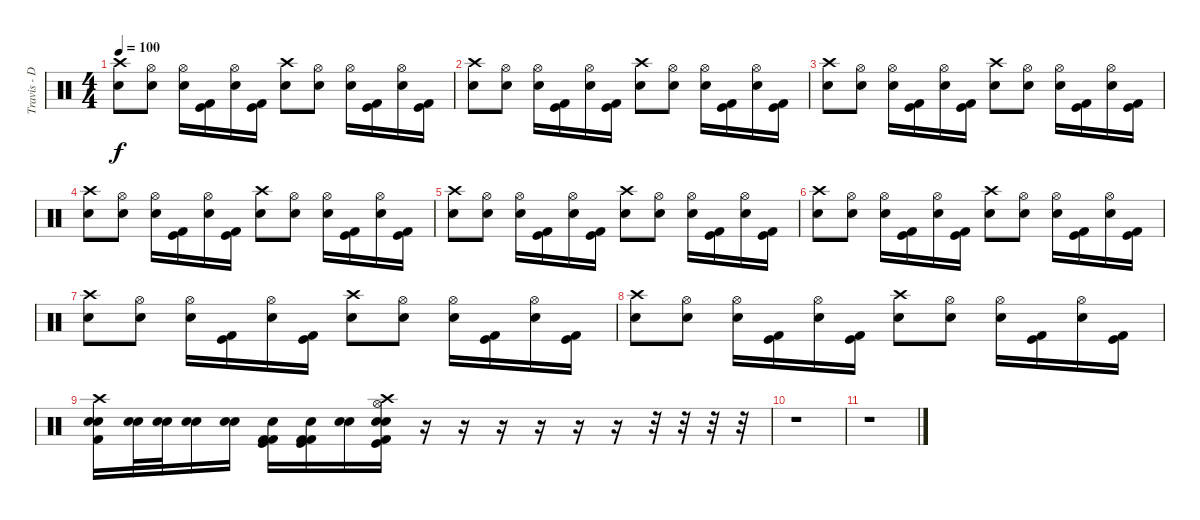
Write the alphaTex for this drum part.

\track ("Travis - Drums {Tabbed by Peter B.}" "Travis - D") {instrument percussion}
\staff {score}
\articulation defaults
\ts (4 4)
\tempo 100
\clef neutral
\ks c
("Crash high (hit)" "Electric Snare (hit)").8{dy f} ("Hi-Hat (open)" "Electric Snare (hit)").8 ("Hi-Hat (open)" "Electric Snare (hit)").16 ("Kick (hit)" "Kick (hit) 2").16 ("Hi-Hat (open)" "Electric Snare (hit)").16 ("Kick (hit)" "Kick (hit) 2").16 ("Crash high (hit)" "Electric Snare (hit)").8 ("Hi-Hat (open)" "Electric Snare (hit)").8 ("Hi-Hat (open)" "Electric Snare (hit)").16 ("Kick (hit)" "Kick (hit) 2").16 ("Hi-Hat (open)" "Electric Snare (hit)").16 ("Kick (hit)" "Kick (hit) 2").16 |
("Crash high (hit)" "Electric Snare (hit)").8 ("Hi-Hat (open)" "Electric Snare (hit)").8 ("Hi-Hat (open)" "Electric Snare (hit)").16 ("Kick (hit)" "Kick (hit) 2").16 ("Hi-Hat (open)" "Electric Snare (hit)").16 ("Kick (hit)" "Kick (hit) 2").16 ("Crash high (hit)" "Electric Snare (hit)").8 ("Hi-Hat (open)" "Electric Snare (hit)").8 ("Hi-Hat (open)" "Electric Snare (hit)").16 ("Kick (hit)" "Kick (hit) 2").16 ("Hi-Hat (open)" "Electric Snare (hit)").16 ("Kick (hit)" "Kick (hit) 2").16 |
("Crash high (hit)" "Electric Snare (hit)").8 ("Hi-Hat (open)" "Electric Snare (hit)").8 ("Hi-Hat (open)" "Electric Snare (hit)").16 ("Kick (hit)" "Kick (hit) 2").16 ("Hi-Hat (open)" "Electric Snare (hit)").16 ("Kick (hit)" "Kick (hit) 2").16 ("Crash high (hit)" "Electric Snare (hit)").8 ("Hi-Hat (open)" "Electric Snare (hit)").8 ("Hi-Hat (open)" "Electric Snare (hit)").16 ("Kick (hit)" "Kick (hit) 2").16 ("Hi-Hat (open)" "Electric Snare (hit)").16 ("Kick (hit)" "Kick (hit) 2").16 |
("Crash high (hit)" "Electric Snare (hit)").8 ("Hi-Hat (open)" "Electric Snare (hit)").8 ("Hi-Hat (open)" "Electric Snare (hit)").16 ("Kick (hit)" "Kick (hit) 2").16 ("Hi-Hat (open)" "Electric Snare (hit)").16 ("Kick (hit)" "Kick (hit) 2").16 ("Crash high (hit)" "Electric Snare (hit)").8 ("Hi-Hat (open)" "Electric Snare (hit)").8 ("Hi-Hat (open)" "Electric Snare (hit)").16 ("Kick (hit)" "Kick (hit) 2").16 ("Hi-Hat (open)" "Electric Snare (hit)").16 ("Kick (hit)" "Kick (hit) 2").16 |
("Crash high (hit)" "Electric Snare (hit)").8 ("Hi-Hat (open)" "Electric Snare (hit)").8 ("Hi-Hat (open)" "Electric Snare (hit)").16 ("Kick (hit)" "Kick (hit) 2").16 ("Hi-Hat (open)" "Electric Snare (hit)").16 ("Kick (hit)" "Kick (hit) 2").16 ("Crash high (hit)" "Electric Snare (hit)").8 ("Hi-Hat (open)" "Electric Snare (hit)").8 ("Hi-Hat (open)" "Electric Snare (hit)").16 ("Kick (hit)" "Kick (hit) 2").16 ("Hi-Hat (open)" "Electric Snare (hit)").16 ("Kick (hit)" "Kick (hit) 2").16 |
("Crash high (hit)" "Electric Snare (hit)").8 ("Hi-Hat (open)" "Electric Snare (hit)").8 ("Hi-Hat (open)" "Electric Snare (hit)").16 ("Kick (hit)" "Kick (hit) 2").16 ("Hi-Hat (open)" "Electric Snare (hit)").16 ("Kick (hit)" "Kick (hit) 2").16 ("Crash high (hit)" "Electric Snare (hit)").8 ("Hi-Hat (open)" "Electric Snare (hit)").8 ("Hi-Hat (open)" "Electric Snare (hit)").16 ("Kick (hit)" "Kick (hit) 2").16 ("Hi-Hat (open)" "Electric Snare (hit)").16 ("Kick (hit)" "Kick (hit) 2").16 |
("Crash high (hit)" "Electric Snare (hit)").8 ("Hi-Hat (open)" "Electric Snare (hit)").8 ("Hi-Hat (open)" "Electric Snare (hit)").16 ("Kick (hit)" "Kick (hit) 2").16 ("Hi-Hat (open)" "Electric Snare (hit)").16 ("Kick (hit)" "Kick (hit) 2").16 ("Crash high (hit)" "Electric Snare (hit)").8 ("Hi-Hat (open)" "Electric Snare (hit)").8 ("Hi-Hat (open)" "Electric Snare (hit)").16 ("Kick (hit)" "Kick (hit) 2").16 ("Hi-Hat (open)" "Electric Snare (hit)").16 ("Kick (hit)" "Kick (hit) 2").16 |
("Crash high (hit)" "Electric Snare (hit)").8 ("Hi-Hat (open)" "Electric Snare (hit)").8 ("Hi-Hat (open)" "Electric Snare (hit)").16 ("Kick (hit)" "Kick (hit) 2").16 ("Hi-Hat (open)" "Electric Snare (hit)").16 ("Kick (hit)" "Kick (hit) 2").16 ("Crash high (hit)" "Electric Snare (hit)").8 ("Hi-Hat (open)" "Electric Snare (hit)").8 ("Hi-Hat (open)" "Electric Snare (hit)").16 ("Kick (hit)" "Kick (hit) 2").16 ("Hi-Hat (open)" "Electric Snare (hit)").16 ("Kick (hit)" "Kick (hit) 2").16 |
("Crash high (hit)" "Snare (hit) 2" "Electric Snare (hit)" "Kick (hit) 2").16 ("Snare (hit) 2" "Electric Snare (hit)").32 ("Snare (hit) 2" "Electric Snare (hit)").32 ("Snare (hit) 2" "Electric Snare (hit)").16 ("Snare (hit) 2" "Electric Snare (hit)").16 ("Snare (hit) 2" "Kick (hit) 2" "Kick (hit)" "Kick (hit) 2").16 ("Snare (hit) 2" "Kick (hit) 2" "Kick (hit)" "Kick (hit) 2").16 ("Snare (hit) 2" "Electric Snare (hit)").16 ("Crash high (hit)" "Hi-Hat (open)" "Snare (hit) 2" "Electric Snare (hit)" "Kick (hit)" "Kick (hit) 2").16 r.16 r.16 r.16 r.16 r.16 r.16 r.32 r.32 r.32 r.32 |
r.1 |
r.1
